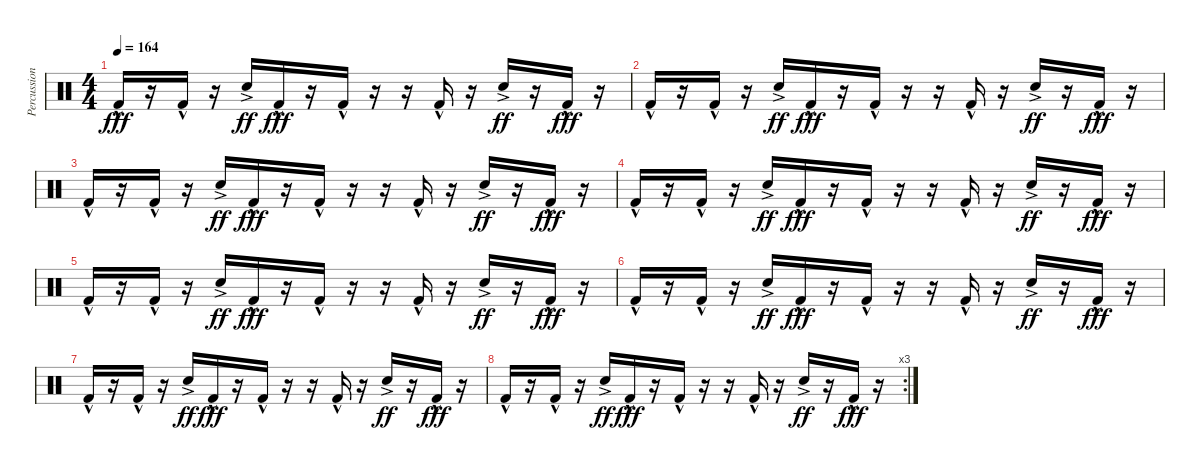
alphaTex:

\track ("Percussion" "Percussion") {instrument percussion}
\staff {score}
\articulation defaults
\ts (4 4)
\tempo 164
\clef neutral
\ks c "Kick (hit) 2"{hac}.16{dy fff}
r.16 "Kick (hit) 2"{hac}.16 r.16 "Snare (hit) 2"{ac}.16{dy ff} "Kick (hit) 2"{hac}.16{dy fff} r.16 "Kick (hit) 2"{hac}.16 r.16 r.16 "Kick (hit) 2"{hac}.16 r.16 "Snare (hit) 2"{ac}.16{dy ff} r.16 "Kick (hit) 2"{hac}.16{dy fff} r.16 |
"Kick (hit) 2"{hac}.16 r.16 "Kick (hit) 2"{hac}.16 r.16 "Snare (hit) 2"{ac}.16{dy ff} "Kick (hit) 2"{hac}.16{dy fff} r.16 "Kick (hit) 2"{hac}.16 r.16 r.16 "Kick (hit) 2"{hac}.16 r.16 "Snare (hit) 2"{ac}.16{dy ff} r.16 "Kick (hit) 2"{hac}.16{dy fff} r.16 |
"Kick (hit) 2"{hac}.16 r.16 "Kick (hit) 2"{hac}.16 r.16 "Snare (hit) 2"{ac}.16{dy ff} "Kick (hit) 2"{hac}.16{dy fff} r.16 "Kick (hit) 2"{hac}.16 r.16 r.16 "Kick (hit) 2"{hac}.16 r.16 "Snare (hit) 2"{ac}.16{dy ff} r.16 "Kick (hit) 2"{hac}.16{dy fff} r.16 |
"Kick (hit) 2"{hac}.16 r.16 "Kick (hit) 2"{hac}.16 r.16 "Snare (hit) 2"{ac}.16{dy ff} "Kick (hit) 2"{hac}.16{dy fff} r.16 "Kick (hit) 2"{hac}.16 r.16 r.16 "Kick (hit) 2"{hac}.16 r.16 "Snare (hit) 2"{ac}.16{dy ff} r.16 "Kick (hit) 2"{hac}.16{dy fff} r.16 |
"Kick (hit) 2"{hac}.16 r.16 "Kick (hit) 2"{hac}.16 r.16 "Snare (hit) 2"{ac}.16{dy ff} "Kick (hit) 2"{hac}.16{dy fff} r.16 "Kick (hit) 2"{hac}.16 r.16 r.16 "Kick (hit) 2"{hac}.16 r.16 "Snare (hit) 2"{ac}.16{dy ff} r.16 "Kick (hit) 2"{hac}.16{dy fff} r.16 |
"Kick (hit) 2"{hac}.16 r.16 "Kick (hit) 2"{hac}.16 r.16 "Snare (hit) 2"{ac}.16{dy ff} "Kick (hit) 2"{hac}.16{dy fff} r.16 "Kick (hit) 2"{hac}.16 r.16 r.16 "Kick (hit) 2"{hac}.16 r.16 "Snare (hit) 2"{ac}.16{dy ff} r.16 "Kick (hit) 2"{hac}.16{dy fff} r.16 |
"Kick (hit) 2"{hac}.16 r.16 "Kick (hit) 2"{hac}.16 r.16 "Snare (hit) 2"{ac}.16{dy ff} "Kick (hit) 2"{hac}.16{dy fff} r.16 "Kick (hit) 2"{hac}.16 r.16 r.16 "Kick (hit) 2"{hac}.16 r.16 "Snare (hit) 2"{ac}.16{dy ff} r.16 "Kick (hit) 2"{hac}.16{dy fff} r.16 |
\rc 3 "Kick (hit) 2"{hac}.16
r.16 "Kick (hit) 2"{hac}.16 r.16 "Snare (hit) 2"{ac}.16{dy ff} "Kick (hit) 2"{hac}.16{dy fff} r.16 "Kick (hit) 2"{hac}.16 r.16 r.16 "Kick (hit) 2"{hac}.16 r.16 "Snare (hit) 2"{ac}.16{dy ff} r.16 "Kick (hit) 2"{hac}.16{dy fff} r.16
